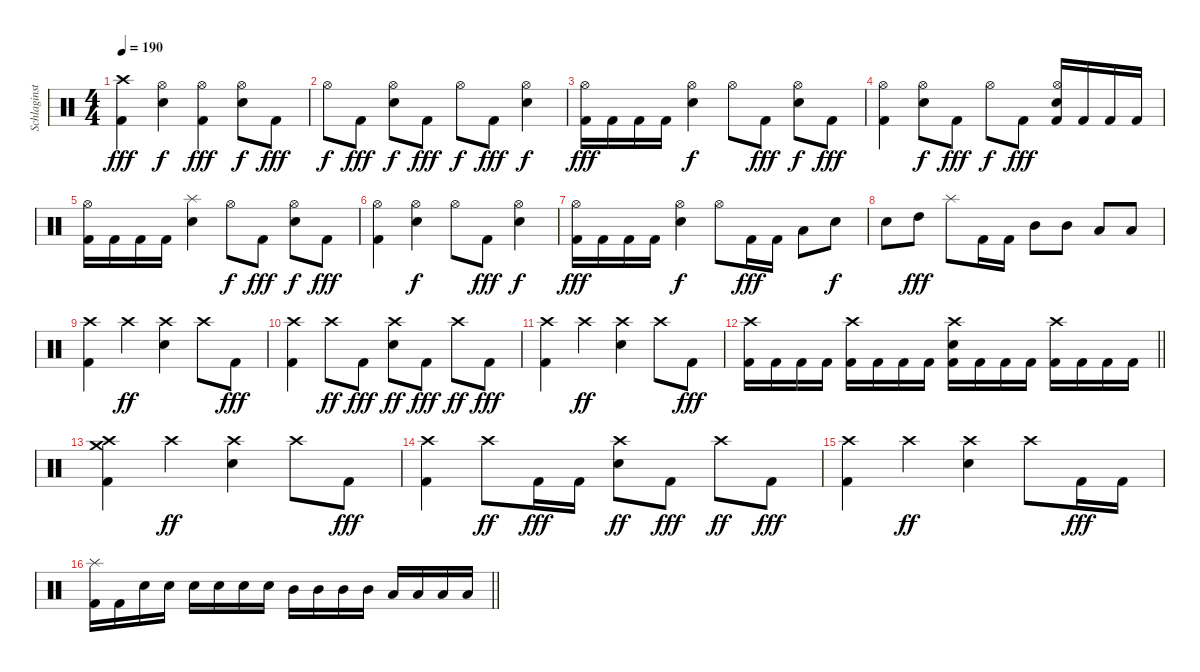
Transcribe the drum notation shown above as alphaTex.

\track ("Schlaginstrumente - Auswahl" "Schlaginst") {instrument percussion}
\staff {score}
\articulation defaults
\ts (4 4)
\tempo 190
\clef neutral
\ks c
("Crash high (hit)" "Kick (hit) 2").4{dy fff} ("Hi-Hat (open)" "Snare (hit) 2").4{dy f} ("Hi-Hat (open)" "Kick (hit) 2").4{dy fff} ("Hi-Hat (open)" "Snare (hit) 2").8{dy f} "Kick (hit) 2".8{dy fff} |
"Hi-Hat (open)".8{dy f} "Kick (hit) 2".8{dy fff} ("Hi-Hat (open)" "Snare (hit) 2").8{dy f} "Kick (hit) 2".8{dy fff} "Hi-Hat (open)".8{dy f} "Kick (hit) 2".8{dy fff} ("Hi-Hat (open)" "Snare (hit) 2").4{dy f} |
("Hi-Hat (open)" "Kick (hit) 2").16{dy fff} "Kick (hit) 2".16 "Kick (hit) 2".16 "Kick (hit) 2".16 ("Hi-Hat (open)" "Snare (hit) 2").4{dy f} "Hi-Hat (open)".8 "Kick (hit) 2".8{dy fff} ("Hi-Hat (open)" "Snare (hit) 2").8{dy f} "Kick (hit) 2".8{dy fff} |
("Hi-Hat (open)" "Kick (hit) 2").4 ("Hi-Hat (open)" "Snare (hit) 2").8{dy f} "Kick (hit) 2".8{dy fff} "Hi-Hat (open)".8{dy f} "Kick (hit) 2".8{dy fff} ("Hi-Hat (open)" "Snare (hit) 2" "Kick (hit) 2").16 "Kick (hit) 2".16 "Kick (hit) 2".16 "Kick (hit) 2".16 |
("Hi-Hat (open)" "Kick (hit) 2").16 "Kick (hit) 2".16 "Kick (hit) 2".16 "Kick (hit) 2".16 ("Splash (hit)" "Snare (hit) 2").4 "Hi-Hat (open)".8{dy f} "Kick (hit) 2".8{dy fff} ("Hi-Hat (open)" "Snare (hit) 2").8{dy f} "Kick (hit) 2".8{dy fff} |
("Hi-Hat (open)" "Kick (hit) 2").4 ("Hi-Hat (open)" "Snare (hit) 2").4{dy f} "Hi-Hat (open)".8 "Kick (hit) 2".8{dy fff} ("Hi-Hat (open)" "Snare (hit) 2").4{dy f} |
("Hi-Hat (open)" "Kick (hit) 2").16{dy fff} "Kick (hit) 2".16 "Kick (hit) 2".16 "Kick (hit) 2".16 ("Hi-Hat (open)" "Snare (hit) 2").4{dy f} "Hi-Hat (open)".8 "Kick (hit) 2".16{dy fff} "Kick (hit) 2".16 "Low Tom (hit)".8 "Snare (hit) 2".8{dy f} |
"Snare (hit) 2".8 "High Tom (hit)".8{dy fff} "Splash (hit)".8 "Kick (hit) 2".16 "Kick (hit) 2".16 "Mid Tom (hit)".8 "Mid Tom (hit)".8 "Low Tom (hit)".8 "Low Tom (hit)".8 |
("Crash high (hit)" "Kick (hit) 2").4 "Crash high (hit)".4{dy ff} ("Crash high (hit)" "Snare (hit) 2").4 "Crash high (hit)".8 "Kick (hit) 2".8{dy fff} |
("Crash high (hit)" "Kick (hit) 2").4 "Crash high (hit)".8{dy ff} "Kick (hit) 2".8{dy fff} ("Crash high (hit)" "Snare (hit) 2").8{dy ff} "Kick (hit) 2".8{dy fff} "Crash high (hit)".8{dy ff} "Kick (hit) 2".8{dy fff} |
("Crash high (hit)" "Kick (hit) 2").4 "Crash high (hit)".4{dy ff} ("Crash high (hit)" "Snare (hit) 2").4 "Crash high (hit)".8 "Kick (hit) 2".8{dy fff} |
\barLineRight lightlight
("Crash high (hit)" "Kick (hit) 2").16 "Kick (hit) 2".16 "Kick (hit) 2".16 "Kick (hit) 2".16 ("Crash high (hit)" "Kick (hit) 2").16 "Kick (hit) 2".16 "Kick (hit) 2".16 "Kick (hit) 2".16 ("Crash high (hit)" "Snare (hit) 2" "Kick (hit) 2").16 "Kick (hit) 2".16 "Kick (hit) 2".16 "Kick (hit) 2".16 ("Crash high (hit)" "Kick (hit) 2").16 "Kick (hit) 2".16 "Kick (hit) 2".16 "Kick (hit) 2".16 |
("Crash high (hit)" "Crash medium (hit)" "Kick (hit) 2").4 "Crash high (hit)".4{dy ff} ("Crash high (hit)" "Snare (hit) 2").4 "Crash high (hit)".8 "Kick (hit) 2".8{dy fff} |
("Crash high (hit)" "Kick (hit) 2").4 "Crash high (hit)".8{dy ff} "Kick (hit) 2".16{dy fff} "Kick (hit) 2".16 ("Crash high (hit)" "Snare (hit) 2").8{dy ff} "Kick (hit) 2".8{dy fff} "Crash high (hit)".8{dy ff} "Kick (hit) 2".8{dy fff} |
("Crash high (hit)" "Kick (hit) 2").4 "Crash high (hit)".4{dy ff} ("Crash high (hit)" "Snare (hit) 2").4 "Crash high (hit)".8 "Kick (hit) 2".16{dy fff} "Kick (hit) 2".16 |
\barLineRight lightlight
("Splash (hit)" "Kick (hit) 2").16 "Kick (hit) 2".16 "Snare (hit) 2".16 "Snare (hit) 2".16 "Snare (hit) 2".16 "Snare (hit) 2".16 "Snare (hit) 2".16 "Snare (hit) 2".16 "Mid Tom (hit)".16 "Mid Tom (hit)".16 "Mid Tom (hit)".16 "Mid Tom (hit)".16 "Low Tom (hit)".16 "Low Tom (hit)".16 "Low Tom (hit)".16 "Low Tom (hit)".16
